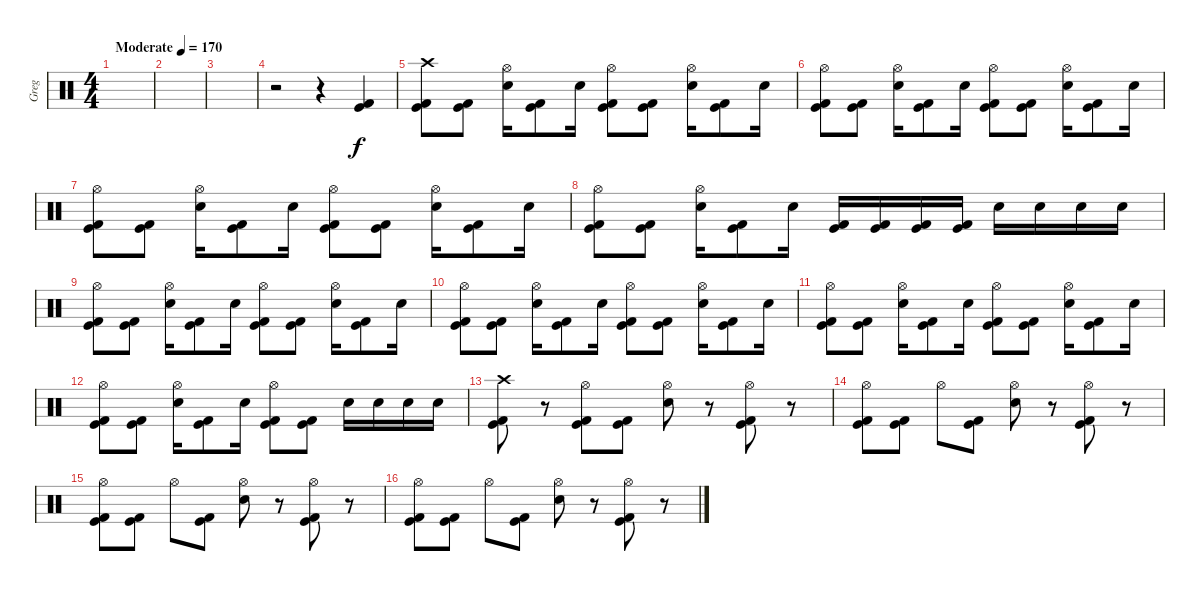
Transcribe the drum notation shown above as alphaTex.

\track ("Greg" "Greg") {instrument percussion}
\staff {score}
\articulation defaults
\ts (4 4)
\tempo (170 "Moderate")
\clef neutral
\ks c
|
|
|
r.2 r.4 ("Kick (hit)" "Kick (hit) 2").4 |
("Crash high (hit)" "Kick (hit)" "Kick (hit) 2").8 ("Kick (hit)" "Kick (hit) 2").8 ("Hi-Hat (open)" "Snare (hit) 2").16 ("Kick (hit)" "Kick (hit) 2").8 "Snare (hit) 2".16 ("Hi-Hat (open)" "Kick (hit)" "Kick (hit) 2").8 ("Kick (hit)" "Kick (hit) 2").8 ("Hi-Hat (open)" "Snare (hit) 2").16 ("Kick (hit)" "Kick (hit) 2").8 "Snare (hit) 2".16 |
("Hi-Hat (open)" "Kick (hit)" "Kick (hit) 2").8 ("Kick (hit)" "Kick (hit) 2").8 ("Hi-Hat (open)" "Snare (hit) 2").16 ("Kick (hit)" "Kick (hit) 2").8 "Snare (hit) 2".16 ("Hi-Hat (open)" "Kick (hit)" "Kick (hit) 2").8 ("Kick (hit)" "Kick (hit) 2").8 ("Hi-Hat (open)" "Snare (hit) 2").16 ("Kick (hit)" "Kick (hit) 2").8 "Snare (hit) 2".16 |
("Hi-Hat (open)" "Kick (hit)" "Kick (hit) 2").8 ("Kick (hit)" "Kick (hit) 2").8 ("Hi-Hat (open)" "Snare (hit) 2").16 ("Kick (hit)" "Kick (hit) 2").8 "Snare (hit) 2".16 ("Hi-Hat (open)" "Kick (hit)" "Kick (hit) 2").8 ("Kick (hit)" "Kick (hit) 2").8 ("Hi-Hat (open)" "Snare (hit) 2").16 ("Kick (hit)" "Kick (hit) 2").8 "Snare (hit) 2".16 |
("Hi-Hat (open)" "Kick (hit)" "Kick (hit) 2").8 ("Kick (hit)" "Kick (hit) 2").8 ("Hi-Hat (open)" "Snare (hit) 2").16 ("Kick (hit)" "Kick (hit) 2").8 "Snare (hit) 2".16 ("Kick (hit)" "Kick (hit) 2").16 ("Kick (hit)" "Kick (hit) 2").16 ("Kick (hit)" "Kick (hit) 2").16 ("Kick (hit)" "Kick (hit) 2").16 "Snare (hit) 2".16 "Snare (hit) 2".16 "Snare (hit) 2".16 "Snare (hit) 2".16 |
("Hi-Hat (open)" "Kick (hit)" "Kick (hit) 2").8 ("Kick (hit)" "Kick (hit) 2").8 ("Hi-Hat (open)" "Snare (hit) 2").16 ("Kick (hit)" "Kick (hit) 2").8 "Snare (hit) 2".16 ("Hi-Hat (open)" "Kick (hit)" "Kick (hit) 2").8 ("Kick (hit)" "Kick (hit) 2").8 ("Hi-Hat (open)" "Snare (hit) 2").16 ("Kick (hit)" "Kick (hit) 2").8 "Snare (hit) 2".16 |
("Hi-Hat (open)" "Kick (hit)" "Kick (hit) 2").8 ("Kick (hit)" "Kick (hit) 2").8 ("Hi-Hat (open)" "Snare (hit) 2").16 ("Kick (hit)" "Kick (hit) 2").8 "Snare (hit) 2".16 ("Hi-Hat (open)" "Kick (hit)" "Kick (hit) 2").8 ("Kick (hit)" "Kick (hit) 2").8 ("Hi-Hat (open)" "Snare (hit) 2").16 ("Kick (hit)" "Kick (hit) 2").8 "Snare (hit) 2".16 |
("Hi-Hat (open)" "Kick (hit)" "Kick (hit) 2").8 ("Kick (hit)" "Kick (hit) 2").8 ("Hi-Hat (open)" "Snare (hit) 2").16 ("Kick (hit)" "Kick (hit) 2").8 "Snare (hit) 2".16 ("Hi-Hat (open)" "Kick (hit)" "Kick (hit) 2").8 ("Kick (hit)" "Kick (hit) 2").8 ("Hi-Hat (open)" "Snare (hit) 2").16 ("Kick (hit)" "Kick (hit) 2").8 "Snare (hit) 2".16 |
("Hi-Hat (open)" "Kick (hit)" "Kick (hit) 2").8 ("Kick (hit)" "Kick (hit) 2").8 ("Hi-Hat (open)" "Snare (hit) 2").16 ("Kick (hit)" "Kick (hit) 2").8 "Snare (hit) 2".16 ("Hi-Hat (open)" "Kick (hit)" "Kick (hit) 2").8 ("Kick (hit)" "Kick (hit) 2").8 "Snare (hit) 2".16 "Snare (hit) 2".16 "Snare (hit) 2".16 "Snare (hit) 2".16 |
("Crash high (hit)" "Kick (hit)" "Kick (hit) 2").8 r.8 ("Hi-Hat (open)" "Kick (hit)" "Kick (hit) 2").8 ("Kick (hit)" "Kick (hit) 2").8 ("Hi-Hat (open)" "Snare (hit) 2").8 r.8 ("Hi-Hat (open)" "Kick (hit)" "Kick (hit) 2").8 r.8 |
("Hi-Hat (open)" "Kick (hit)" "Kick (hit) 2").8 ("Kick (hit)" "Kick (hit) 2").8 "Hi-Hat (open)".8 ("Kick (hit)" "Kick (hit) 2").8 ("Hi-Hat (open)" "Snare (hit) 2").8 r.8 ("Hi-Hat (open)" "Kick (hit)" "Kick (hit) 2").8 r.8 |
("Hi-Hat (open)" "Kick (hit)" "Kick (hit) 2").8 ("Kick (hit)" "Kick (hit) 2").8 "Hi-Hat (open)".8 ("Kick (hit)" "Kick (hit) 2").8 ("Hi-Hat (open)" "Snare (hit) 2").8 r.8 ("Hi-Hat (open)" "Kick (hit)" "Kick (hit) 2").8 r.8 |
("Hi-Hat (open)" "Kick (hit)" "Kick (hit) 2").8 ("Kick (hit)" "Kick (hit) 2").8 "Hi-Hat (open)".8 ("Kick (hit)" "Kick (hit) 2").8 ("Hi-Hat (open)" "Snare (hit) 2").8 r.8 ("Hi-Hat (open)" "Kick (hit)" "Kick (hit) 2").8 r.8
